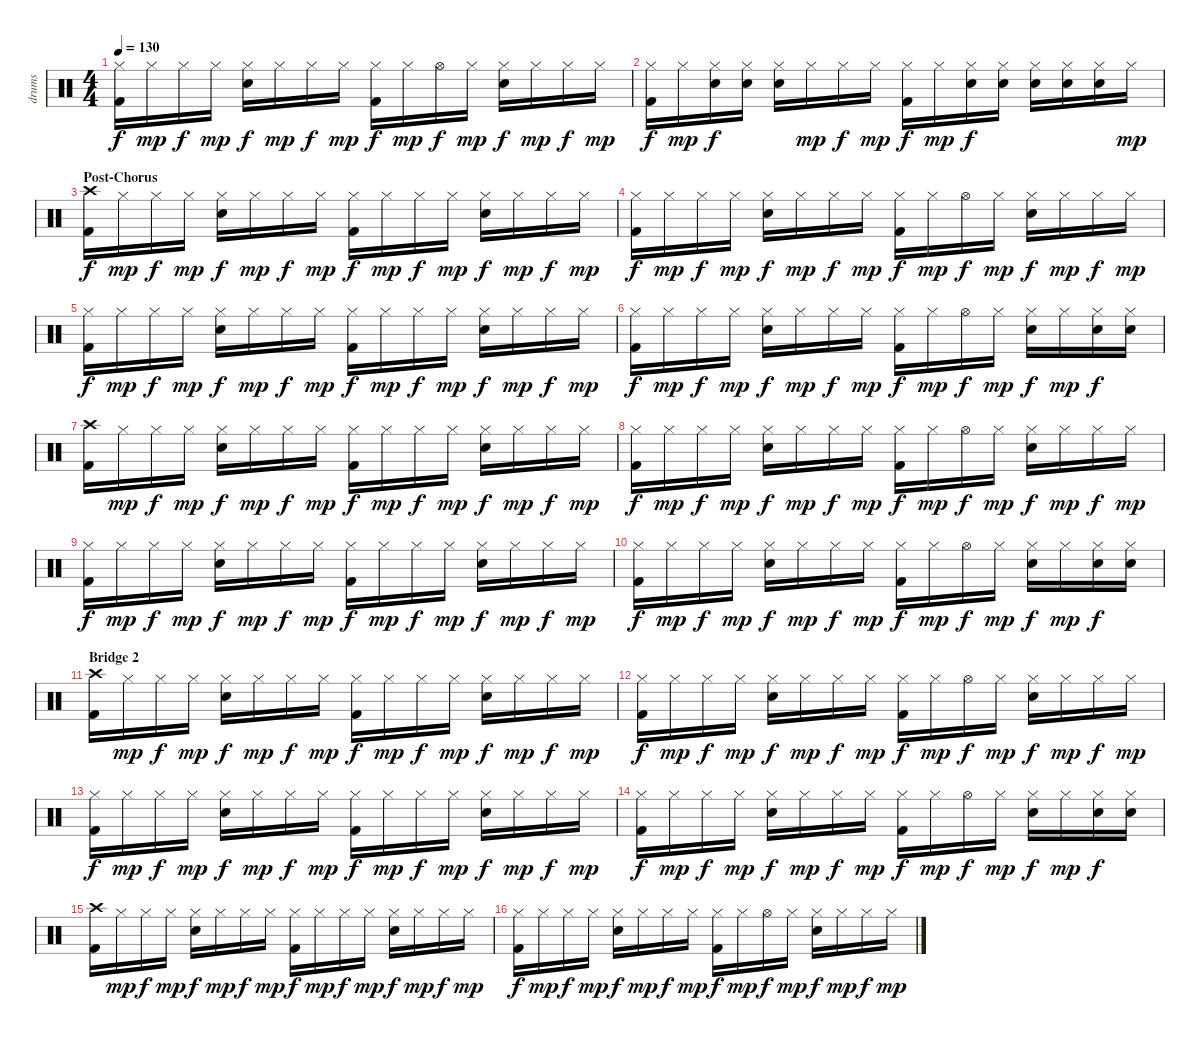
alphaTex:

\track ("drums" "drums") {instrument percussion}
\staff {score}
\articulation defaults
\ts (4 4)
\tempo 130
\clef neutral
\ks c
("Hi-Hat (closed)" "Kick (hit) 2").16{dy f} "Hi-Hat (closed)".16{dy mp} "Hi-Hat (closed)".16{dy f} "Hi-Hat (closed)".16{dy mp} ("Hi-Hat (closed)" "Electric Snare (hit)").16{dy f} "Hi-Hat (closed)".16{dy mp} "Hi-Hat (closed)".16{dy f} "Hi-Hat (closed)".16{dy mp} ("Hi-Hat (closed)" "Kick (hit) 2").16{dy f} "Hi-Hat (closed)".16{dy mp} "Hi-Hat (open)".16{dy f} "Hi-Hat (closed)".16{dy mp} ("Hi-Hat (closed)" "Electric Snare (hit)").16{dy f} "Hi-Hat (closed)".16{dy mp} "Hi-Hat (closed)".16{dy f} "Hi-Hat (closed)".16{dy mp} |
("Hi-Hat (closed)" "Kick (hit) 2").16{dy f} "Hi-Hat (closed)".16{dy mp} ("Hi-Hat (closed)" "Electric Snare (hit)").16{dy f} ("Hi-Hat (closed)" "Electric Snare (hit)").16 ("Hi-Hat (closed)" "Electric Snare (hit)").16 "Hi-Hat (closed)".16{dy mp} "Hi-Hat (closed)".16{dy f} "Hi-Hat (closed)".16{dy mp} ("Hi-Hat (closed)" "Kick (hit) 2").16{dy f} "Hi-Hat (closed)".16{dy mp} ("Hi-Hat (closed)" "Electric Snare (hit)").16{dy f} ("Hi-Hat (closed)" "Electric Snare (hit)").16 ("Hi-Hat (closed)" "Electric Snare (hit)").16 ("Hi-Hat (closed)" "Electric Snare (hit)").16 ("Hi-Hat (closed)" "Electric Snare (hit)").16 "Hi-Hat (closed)".16{dy mp} |
\section ("" "Post-Chorus")
("Crash high (hit)" "Kick (hit) 2").16{dy f} "Hi-Hat (closed)".16{dy mp} "Hi-Hat (closed)".16{dy f} "Hi-Hat (closed)".16{dy mp} ("Hi-Hat (closed)" "Electric Snare (hit)").16{dy f} "Hi-Hat (closed)".16{dy mp} "Hi-Hat (closed)".16{dy f} "Hi-Hat (closed)".16{dy mp} ("Hi-Hat (closed)" "Kick (hit) 2").16{dy f} "Hi-Hat (closed)".16{dy mp} "Hi-Hat (closed)".16{dy f} "Hi-Hat (closed)".16{dy mp} ("Hi-Hat (closed)" "Electric Snare (hit)").16{dy f} "Hi-Hat (closed)".16{dy mp} "Hi-Hat (closed)".16{dy f} "Hi-Hat (closed)".16{dy mp} |
("Hi-Hat (closed)" "Kick (hit) 2").16{dy f} "Hi-Hat (closed)".16{dy mp} "Hi-Hat (closed)".16{dy f} "Hi-Hat (closed)".16{dy mp} ("Hi-Hat (closed)" "Electric Snare (hit)").16{dy f} "Hi-Hat (closed)".16{dy mp} "Hi-Hat (closed)".16{dy f} "Hi-Hat (closed)".16{dy mp} ("Hi-Hat (closed)" "Kick (hit) 2").16{dy f} "Hi-Hat (closed)".16{dy mp} "Hi-Hat (open)".16{dy f} "Hi-Hat (closed)".16{dy mp} ("Hi-Hat (closed)" "Electric Snare (hit)").16{dy f} "Hi-Hat (closed)".16{dy mp} "Hi-Hat (closed)".16{dy f} "Hi-Hat (closed)".16{dy mp} |
("Hi-Hat (closed)" "Kick (hit) 2").16{dy f} "Hi-Hat (closed)".16{dy mp} "Hi-Hat (closed)".16{dy f} "Hi-Hat (closed)".16{dy mp} ("Hi-Hat (closed)" "Electric Snare (hit)").16{dy f} "Hi-Hat (closed)".16{dy mp} "Hi-Hat (closed)".16{dy f} "Hi-Hat (closed)".16{dy mp} ("Hi-Hat (closed)" "Kick (hit) 2").16{dy f} "Hi-Hat (closed)".16{dy mp} "Hi-Hat (closed)".16{dy f} "Hi-Hat (closed)".16{dy mp} ("Hi-Hat (closed)" "Electric Snare (hit)").16{dy f} "Hi-Hat (closed)".16{dy mp} "Hi-Hat (closed)".16{dy f} "Hi-Hat (closed)".16{dy mp} |
("Hi-Hat (closed)" "Kick (hit) 2").16{dy f} "Hi-Hat (closed)".16{dy mp} "Hi-Hat (closed)".16{dy f} "Hi-Hat (closed)".16{dy mp} ("Hi-Hat (closed)" "Electric Snare (hit)").16{dy f} "Hi-Hat (closed)".16{dy mp} "Hi-Hat (closed)".16{dy f} "Hi-Hat (closed)".16{dy mp} ("Hi-Hat (closed)" "Kick (hit) 2").16{dy f} "Hi-Hat (closed)".16{dy mp} "Hi-Hat (open)".16{dy f} "Hi-Hat (closed)".16{dy mp} ("Hi-Hat (closed)" "Electric Snare (hit)").16{dy f} "Hi-Hat (closed)".16{dy mp} ("Hi-Hat (closed)" "Electric Snare (hit)").16{dy f} ("Hi-Hat (closed)" "Electric Snare (hit)").16 |
("Crash high (hit)" "Kick (hit) 2").16 "Hi-Hat (closed)".16{dy mp} "Hi-Hat (closed)".16{dy f} "Hi-Hat (closed)".16{dy mp} ("Hi-Hat (closed)" "Electric Snare (hit)").16{dy f} "Hi-Hat (closed)".16{dy mp} "Hi-Hat (closed)".16{dy f} "Hi-Hat (closed)".16{dy mp} ("Hi-Hat (closed)" "Kick (hit) 2").16{dy f} "Hi-Hat (closed)".16{dy mp} "Hi-Hat (closed)".16{dy f} "Hi-Hat (closed)".16{dy mp} ("Hi-Hat (closed)" "Electric Snare (hit)").16{dy f} "Hi-Hat (closed)".16{dy mp} "Hi-Hat (closed)".16{dy f} "Hi-Hat (closed)".16{dy mp} |
("Hi-Hat (closed)" "Kick (hit) 2").16{dy f} "Hi-Hat (closed)".16{dy mp} "Hi-Hat (closed)".16{dy f} "Hi-Hat (closed)".16{dy mp} ("Hi-Hat (closed)" "Electric Snare (hit)").16{dy f} "Hi-Hat (closed)".16{dy mp} "Hi-Hat (closed)".16{dy f} "Hi-Hat (closed)".16{dy mp} ("Hi-Hat (closed)" "Kick (hit) 2").16{dy f} "Hi-Hat (closed)".16{dy mp} "Hi-Hat (open)".16{dy f} "Hi-Hat (closed)".16{dy mp} ("Hi-Hat (closed)" "Electric Snare (hit)").16{dy f} "Hi-Hat (closed)".16{dy mp} "Hi-Hat (closed)".16{dy f} "Hi-Hat (closed)".16{dy mp} |
("Hi-Hat (closed)" "Kick (hit) 2").16{dy f} "Hi-Hat (closed)".16{dy mp} "Hi-Hat (closed)".16{dy f} "Hi-Hat (closed)".16{dy mp} ("Hi-Hat (closed)" "Electric Snare (hit)").16{dy f} "Hi-Hat (closed)".16{dy mp} "Hi-Hat (closed)".16{dy f} "Hi-Hat (closed)".16{dy mp} ("Hi-Hat (closed)" "Kick (hit) 2").16{dy f} "Hi-Hat (closed)".16{dy mp} "Hi-Hat (closed)".16{dy f} "Hi-Hat (closed)".16{dy mp} ("Hi-Hat (closed)" "Electric Snare (hit)").16{dy f} "Hi-Hat (closed)".16{dy mp} "Hi-Hat (closed)".16{dy f} "Hi-Hat (closed)".16{dy mp} |
("Hi-Hat (closed)" "Kick (hit) 2").16{dy f} "Hi-Hat (closed)".16{dy mp} "Hi-Hat (closed)".16{dy f} "Hi-Hat (closed)".16{dy mp} ("Hi-Hat (closed)" "Electric Snare (hit)").16{dy f} "Hi-Hat (closed)".16{dy mp} "Hi-Hat (closed)".16{dy f} "Hi-Hat (closed)".16{dy mp} ("Hi-Hat (closed)" "Kick (hit) 2").16{dy f} "Hi-Hat (closed)".16{dy mp} "Hi-Hat (open)".16{dy f} "Hi-Hat (closed)".16{dy mp} ("Hi-Hat (closed)" "Electric Snare (hit)").16{dy f} "Hi-Hat (closed)".16{dy mp} ("Hi-Hat (closed)" "Electric Snare (hit)").16{dy f} ("Hi-Hat (closed)" "Electric Snare (hit)").16 |
\section ("" "Bridge 2")
("Crash high (hit)" "Kick (hit) 2").16 "Hi-Hat (closed)".16{dy mp} "Hi-Hat (closed)".16{dy f} "Hi-Hat (closed)".16{dy mp} ("Hi-Hat (closed)" "Electric Snare (hit)").16{dy f} "Hi-Hat (closed)".16{dy mp} "Hi-Hat (closed)".16{dy f} "Hi-Hat (closed)".16{dy mp} ("Hi-Hat (closed)" "Kick (hit) 2").16{dy f} "Hi-Hat (closed)".16{dy mp} "Hi-Hat (closed)".16{dy f} "Hi-Hat (closed)".16{dy mp} ("Hi-Hat (closed)" "Electric Snare (hit)").16{dy f} "Hi-Hat (closed)".16{dy mp} "Hi-Hat (closed)".16{dy f} "Hi-Hat (closed)".16{dy mp} |
("Hi-Hat (closed)" "Kick (hit) 2").16{dy f} "Hi-Hat (closed)".16{dy mp} "Hi-Hat (closed)".16{dy f} "Hi-Hat (closed)".16{dy mp} ("Hi-Hat (closed)" "Electric Snare (hit)").16{dy f} "Hi-Hat (closed)".16{dy mp} "Hi-Hat (closed)".16{dy f} "Hi-Hat (closed)".16{dy mp} ("Hi-Hat (closed)" "Kick (hit) 2").16{dy f} "Hi-Hat (closed)".16{dy mp} "Hi-Hat (open)".16{dy f} "Hi-Hat (closed)".16{dy mp} ("Hi-Hat (closed)" "Electric Snare (hit)").16{dy f} "Hi-Hat (closed)".16{dy mp} "Hi-Hat (closed)".16{dy f} "Hi-Hat (closed)".16{dy mp} |
("Hi-Hat (closed)" "Kick (hit) 2").16{dy f} "Hi-Hat (closed)".16{dy mp} "Hi-Hat (closed)".16{dy f} "Hi-Hat (closed)".16{dy mp} ("Hi-Hat (closed)" "Electric Snare (hit)").16{dy f} "Hi-Hat (closed)".16{dy mp} "Hi-Hat (closed)".16{dy f} "Hi-Hat (closed)".16{dy mp} ("Hi-Hat (closed)" "Kick (hit) 2").16{dy f} "Hi-Hat (closed)".16{dy mp} "Hi-Hat (closed)".16{dy f} "Hi-Hat (closed)".16{dy mp} ("Hi-Hat (closed)" "Electric Snare (hit)").16{dy f} "Hi-Hat (closed)".16{dy mp} "Hi-Hat (closed)".16{dy f} "Hi-Hat (closed)".16{dy mp} |
("Hi-Hat (closed)" "Kick (hit) 2").16{dy f} "Hi-Hat (closed)".16{dy mp} "Hi-Hat (closed)".16{dy f} "Hi-Hat (closed)".16{dy mp} ("Hi-Hat (closed)" "Electric Snare (hit)").16{dy f} "Hi-Hat (closed)".16{dy mp} "Hi-Hat (closed)".16{dy f} "Hi-Hat (closed)".16{dy mp} ("Hi-Hat (closed)" "Kick (hit) 2").16{dy f} "Hi-Hat (closed)".16{dy mp} "Hi-Hat (open)".16{dy f} "Hi-Hat (closed)".16{dy mp} ("Hi-Hat (closed)" "Electric Snare (hit)").16{dy f} "Hi-Hat (closed)".16{dy mp} ("Hi-Hat (closed)" "Electric Snare (hit)").16{dy f} ("Hi-Hat (closed)" "Electric Snare (hit)").16 |
("Crash high (hit)" "Kick (hit) 2").16 "Hi-Hat (closed)".16{dy mp} "Hi-Hat (closed)".16{dy f} "Hi-Hat (closed)".16{dy mp} ("Hi-Hat (closed)" "Electric Snare (hit)").16{dy f} "Hi-Hat (closed)".16{dy mp} "Hi-Hat (closed)".16{dy f} "Hi-Hat (closed)".16{dy mp} ("Hi-Hat (closed)" "Kick (hit) 2").16{dy f} "Hi-Hat (closed)".16{dy mp} "Hi-Hat (closed)".16{dy f} "Hi-Hat (closed)".16{dy mp} ("Hi-Hat (closed)" "Electric Snare (hit)").16{dy f} "Hi-Hat (closed)".16{dy mp} "Hi-Hat (closed)".16{dy f} "Hi-Hat (closed)".16{dy mp} |
("Hi-Hat (closed)" "Kick (hit) 2").16{dy f} "Hi-Hat (closed)".16{dy mp} "Hi-Hat (closed)".16{dy f} "Hi-Hat (closed)".16{dy mp} ("Hi-Hat (closed)" "Electric Snare (hit)").16{dy f} "Hi-Hat (closed)".16{dy mp} "Hi-Hat (closed)".16{dy f} "Hi-Hat (closed)".16{dy mp} ("Hi-Hat (closed)" "Kick (hit) 2").16{dy f} "Hi-Hat (closed)".16{dy mp} "Hi-Hat (open)".16{dy f} "Hi-Hat (closed)".16{dy mp} ("Hi-Hat (closed)" "Electric Snare (hit)").16{dy f} "Hi-Hat (closed)".16{dy mp} "Hi-Hat (closed)".16{dy f} "Hi-Hat (closed)".16{dy mp}
